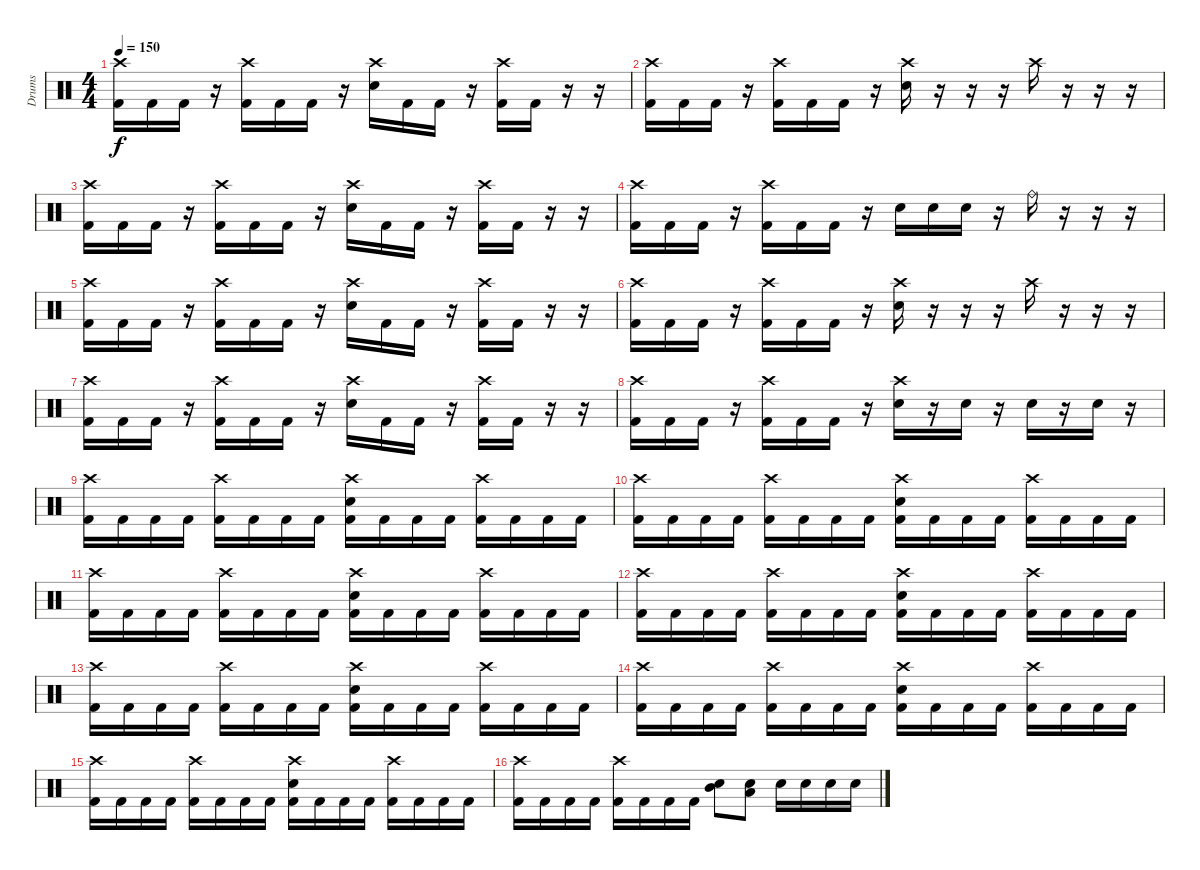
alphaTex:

\track ("Drums" "Drums") {instrument percussion}
\staff {score}
\articulation defaults
\ts (4 4)
\tempo 150
\clef neutral
\ks c
("Crash high (hit)" "Kick (hit) 2").16{dy f} "Kick (hit) 2".16 "Kick (hit) 2".16 r.16 ("Crash high (hit)" "Kick (hit) 2").16 "Kick (hit) 2".16 "Kick (hit) 2".16 r.16 ("Crash high (hit)" "Snare (hit) 2").16 "Kick (hit) 2".16 "Kick (hit) 2".16 r.16 ("Crash high (hit)" "Kick (hit) 2").16 "Kick (hit) 2".16 r.16 r.16 |
("Crash high (hit)" "Kick (hit) 2").16 "Kick (hit) 2".16 "Kick (hit) 2".16 r.16 ("Crash high (hit)" "Kick (hit) 2").16 "Kick (hit) 2".16 "Kick (hit) 2".16 r.16 ("Crash high (hit)" "Snare (hit) 2").16 r.16 r.16 r.16 "Crash high (hit)".16 r.16 r.16 r.16 |
("Crash high (hit)" "Kick (hit) 2").16 "Kick (hit) 2".16 "Kick (hit) 2".16 r.16 ("Crash high (hit)" "Kick (hit) 2").16 "Kick (hit) 2".16 "Kick (hit) 2".16 r.16 ("Crash high (hit)" "Snare (hit) 2").16 "Kick (hit) 2".16 "Kick (hit) 2".16 r.16 ("Crash high (hit)" "Kick (hit) 2").16 "Kick (hit) 2".16 r.16 r.16 |
("Crash high (hit)" "Kick (hit) 2").16 "Kick (hit) 2".16 "Kick (hit) 2".16 r.16 ("Crash high (hit)" "Kick (hit) 2").16 "Kick (hit) 2".16 "Kick (hit) 2".16 r.16 "Snare (hit) 2".16 "Snare (hit) 2".16 "Snare (hit) 2".16 r.16 "Ride (bell)".16 r.16 r.16 r.16 |
("Crash high (hit)" "Kick (hit) 2").16 "Kick (hit) 2".16 "Kick (hit) 2".16 r.16 ("Crash high (hit)" "Kick (hit) 2").16 "Kick (hit) 2".16 "Kick (hit) 2".16 r.16 ("Crash high (hit)" "Snare (hit) 2").16 "Kick (hit) 2".16 "Kick (hit) 2".16 r.16 ("Crash high (hit)" "Kick (hit) 2").16 "Kick (hit) 2".16 r.16 r.16 |
("Crash high (hit)" "Kick (hit) 2").16 "Kick (hit) 2".16 "Kick (hit) 2".16 r.16 ("Crash high (hit)" "Kick (hit) 2").16 "Kick (hit) 2".16 "Kick (hit) 2".16 r.16 ("Crash high (hit)" "Snare (hit) 2").16 r.16 r.16 r.16 "Crash high (hit)".16 r.16 r.16 r.16 |
("Crash high (hit)" "Kick (hit) 2").16 "Kick (hit) 2".16 "Kick (hit) 2".16 r.16 ("Crash high (hit)" "Kick (hit) 2").16 "Kick (hit) 2".16 "Kick (hit) 2".16 r.16 ("Crash high (hit)" "Snare (hit) 2").16 "Kick (hit) 2".16 "Kick (hit) 2".16 r.16 ("Crash high (hit)" "Kick (hit) 2").16 "Kick (hit) 2".16 r.16 r.16 |
("Crash high (hit)" "Kick (hit) 2").16 "Kick (hit) 2".16 "Kick (hit) 2".16 r.16 ("Crash high (hit)" "Kick (hit) 2").16 "Kick (hit) 2".16 "Kick (hit) 2".16 r.16 ("Crash high (hit)" "Snare (hit) 2").16 r.16 "Snare (hit) 2".16 r.16 "Snare (hit) 2".16 r.16 "Snare (hit) 2".16 r.16 |
("Crash high (hit)" "Kick (hit) 2").16 "Kick (hit) 2".16 "Kick (hit) 2".16 "Kick (hit) 2".16 ("Crash high (hit)" "Kick (hit) 2").16 "Kick (hit) 2".16 "Kick (hit) 2".16 "Kick (hit) 2".16 ("Crash high (hit)" "Snare (hit) 2" "Kick (hit) 2").16 "Kick (hit) 2".16 "Kick (hit) 2".16 "Kick (hit) 2".16 ("Crash high (hit)" "Kick (hit) 2").16 "Kick (hit) 2".16 "Kick (hit) 2".16 "Kick (hit) 2".16 |
("Crash high (hit)" "Kick (hit) 2").16 "Kick (hit) 2".16 "Kick (hit) 2".16 "Kick (hit) 2".16 ("Crash high (hit)" "Kick (hit) 2").16 "Kick (hit) 2".16 "Kick (hit) 2".16 "Kick (hit) 2".16 ("Crash high (hit)" "Snare (hit) 2" "Kick (hit) 2").16 "Kick (hit) 2".16 "Kick (hit) 2".16 "Kick (hit) 2".16 ("Crash high (hit)" "Kick (hit) 2").16 "Kick (hit) 2".16 "Kick (hit) 2".16 "Kick (hit) 2".16 |
("Crash high (hit)" "Kick (hit) 2").16 "Kick (hit) 2".16 "Kick (hit) 2".16 "Kick (hit) 2".16 ("Crash high (hit)" "Kick (hit) 2").16 "Kick (hit) 2".16 "Kick (hit) 2".16 "Kick (hit) 2".16 ("Crash high (hit)" "Snare (hit) 2" "Kick (hit) 2").16 "Kick (hit) 2".16 "Kick (hit) 2".16 "Kick (hit) 2".16 ("Crash high (hit)" "Kick (hit) 2").16 "Kick (hit) 2".16 "Kick (hit) 2".16 "Kick (hit) 2".16 |
("Crash high (hit)" "Kick (hit) 2").16 "Kick (hit) 2".16 "Kick (hit) 2".16 "Kick (hit) 2".16 ("Crash high (hit)" "Kick (hit) 2").16 "Kick (hit) 2".16 "Kick (hit) 2".16 "Kick (hit) 2".16 ("Crash high (hit)" "Snare (hit) 2" "Kick (hit) 2").16 "Kick (hit) 2".16 "Kick (hit) 2".16 "Kick (hit) 2".16 ("Crash high (hit)" "Kick (hit) 2").16 "Kick (hit) 2".16 "Kick (hit) 2".16 "Kick (hit) 2".16 |
("Crash high (hit)" "Kick (hit) 2").16 "Kick (hit) 2".16 "Kick (hit) 2".16 "Kick (hit) 2".16 ("Crash high (hit)" "Kick (hit) 2").16 "Kick (hit) 2".16 "Kick (hit) 2".16 "Kick (hit) 2".16 ("Crash high (hit)" "Snare (hit) 2" "Kick (hit) 2").16 "Kick (hit) 2".16 "Kick (hit) 2".16 "Kick (hit) 2".16 ("Crash high (hit)" "Kick (hit) 2").16 "Kick (hit) 2".16 "Kick (hit) 2".16 "Kick (hit) 2".16 |
("Crash high (hit)" "Kick (hit) 2").16 "Kick (hit) 2".16 "Kick (hit) 2".16 "Kick (hit) 2".16 ("Crash high (hit)" "Kick (hit) 2").16 "Kick (hit) 2".16 "Kick (hit) 2".16 "Kick (hit) 2".16 ("Crash high (hit)" "Snare (hit) 2" "Kick (hit) 2").16 "Kick (hit) 2".16 "Kick (hit) 2".16 "Kick (hit) 2".16 ("Crash high (hit)" "Kick (hit) 2").16 "Kick (hit) 2".16 "Kick (hit) 2".16 "Kick (hit) 2".16 |
("Crash high (hit)" "Kick (hit) 2").16 "Kick (hit) 2".16 "Kick (hit) 2".16 "Kick (hit) 2".16 ("Crash high (hit)" "Kick (hit) 2").16 "Kick (hit) 2".16 "Kick (hit) 2".16 "Kick (hit) 2".16 ("Crash high (hit)" "Snare (hit) 2" "Kick (hit) 2").16 "Kick (hit) 2".16 "Kick (hit) 2".16 "Kick (hit) 2".16 ("Crash high (hit)" "Kick (hit) 2").16 "Kick (hit) 2".16 "Kick (hit) 2".16 "Kick (hit) 2".16 |
("Crash high (hit)" "Kick (hit) 2").16 "Kick (hit) 2".16 "Kick (hit) 2".16 "Kick (hit) 2".16 ("Crash high (hit)" "Kick (hit) 2").16 "Kick (hit) 2".16 "Kick (hit) 2".16 "Kick (hit) 2".16 ("Mid Tom (hit)" "Snare (hit) 2").8 ("Low Tom (hit)" "Snare (hit) 2").8 "Snare (hit) 2".16 "Snare (hit) 2".16 "Snare (hit) 2".16 "Snare (hit) 2".16
